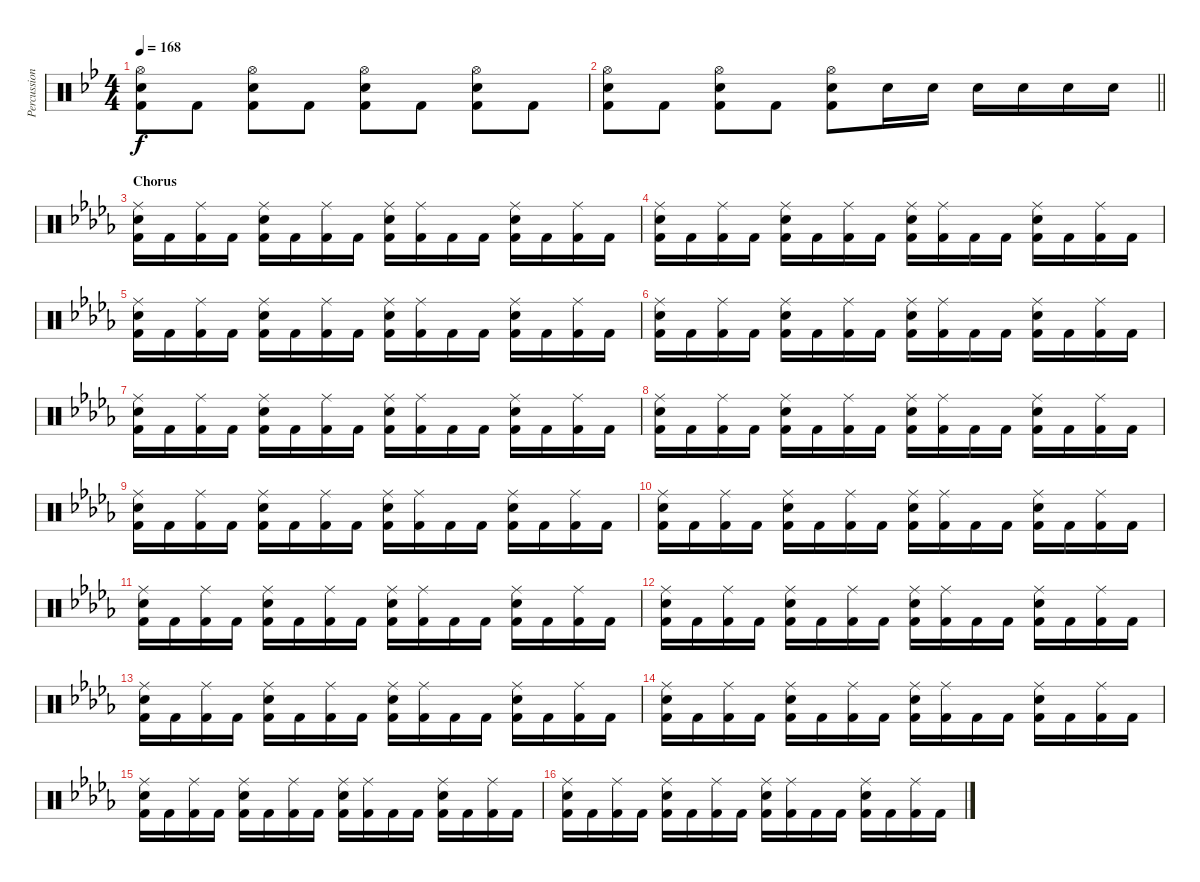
\track ("Percussion" "Percussion") {instrument percussion}
\staff {score}
\articulation defaults
\ts (4 4)
\tempo 168
\clef neutral
\ks bb
("Hi-Hat (open)" "Snare (hit) 2" "Kick (hit) 2").8{dy f} "Kick (hit) 2".8 ("Hi-Hat (open)" "Snare (hit) 2" "Kick (hit) 2").8 "Kick (hit) 2".8 ("Hi-Hat (open)" "Snare (hit) 2" "Kick (hit) 2").8 "Kick (hit) 2".8 ("Hi-Hat (open)" "Snare (hit) 2" "Kick (hit) 2").8 "Kick (hit) 2".8 |
\barLineRight lightlight
("Hi-Hat (open)" "Snare (hit) 2" "Kick (hit) 2").8 "Kick (hit) 2".8 ("Hi-Hat (open)" "Snare (hit) 2" "Kick (hit) 2").8 "Kick (hit) 2".8 ("Hi-Hat (open)" "Snare (hit) 2" "Kick (hit) 2").8 "Snare (hit) 2".16 "Snare (hit) 2".16 "Snare (hit) 2".16 "Snare (hit) 2".16 "Snare (hit) 2".16 "Snare (hit) 2".16 |
\section ("" "Chorus")
\ks db
("Ride (middle)" "Snare (hit) 2" "Kick (hit) 2").16 "Kick (hit) 2".16 ("Ride (middle)" "Kick (hit) 2").16 "Kick (hit) 2".16 ("Ride (middle)" "Snare (hit) 2" "Kick (hit) 2").16 "Kick (hit) 2".16 ("Ride (middle)" "Kick (hit) 2").16 "Kick (hit) 2".16 ("Ride (middle)" "Snare (hit) 2" "Kick (hit) 2").16 ("Ride (middle)" "Kick (hit) 2").16 "Kick (hit) 2".16 "Kick (hit) 2".16 ("Ride (middle)" "Snare (hit) 2" "Kick (hit) 2").16 "Kick (hit) 2".16 ("Ride (middle)" "Kick (hit) 2").16 "Kick (hit) 2".16 |
("Ride (middle)" "Snare (hit) 2" "Kick (hit) 2").16 "Kick (hit) 2".16 ("Ride (middle)" "Kick (hit) 2").16 "Kick (hit) 2".16 ("Ride (middle)" "Snare (hit) 2" "Kick (hit) 2").16 "Kick (hit) 2".16 ("Ride (middle)" "Kick (hit) 2").16 "Kick (hit) 2".16 ("Ride (middle)" "Snare (hit) 2" "Kick (hit) 2").16 ("Ride (middle)" "Kick (hit) 2").16 "Kick (hit) 2".16 "Kick (hit) 2".16 ("Ride (middle)" "Snare (hit) 2" "Kick (hit) 2").16 "Kick (hit) 2".16 ("Ride (middle)" "Kick (hit) 2").16 "Kick (hit) 2".16 |
("Ride (middle)" "Snare (hit) 2" "Kick (hit) 2").16 "Kick (hit) 2".16 ("Ride (middle)" "Kick (hit) 2").16 "Kick (hit) 2".16 ("Ride (middle)" "Snare (hit) 2" "Kick (hit) 2").16 "Kick (hit) 2".16 ("Ride (middle)" "Kick (hit) 2").16 "Kick (hit) 2".16 ("Ride (middle)" "Snare (hit) 2" "Kick (hit) 2").16 ("Ride (middle)" "Kick (hit) 2").16 "Kick (hit) 2".16 "Kick (hit) 2".16 ("Ride (middle)" "Snare (hit) 2" "Kick (hit) 2").16 "Kick (hit) 2".16 ("Ride (middle)" "Kick (hit) 2").16 "Kick (hit) 2".16 |
("Ride (middle)" "Snare (hit) 2" "Kick (hit) 2").16 "Kick (hit) 2".16 ("Ride (middle)" "Kick (hit) 2").16 "Kick (hit) 2".16 ("Ride (middle)" "Snare (hit) 2" "Kick (hit) 2").16 "Kick (hit) 2".16 ("Ride (middle)" "Kick (hit) 2").16 "Kick (hit) 2".16 ("Ride (middle)" "Snare (hit) 2" "Kick (hit) 2").16 ("Ride (middle)" "Kick (hit) 2").16 "Kick (hit) 2".16 "Kick (hit) 2".16 ("Ride (middle)" "Snare (hit) 2" "Kick (hit) 2").16 "Kick (hit) 2".16 ("Ride (middle)" "Kick (hit) 2").16 "Kick (hit) 2".16 |
("Ride (middle)" "Snare (hit) 2" "Kick (hit) 2").16 "Kick (hit) 2".16 ("Ride (middle)" "Kick (hit) 2").16 "Kick (hit) 2".16 ("Ride (middle)" "Snare (hit) 2" "Kick (hit) 2").16 "Kick (hit) 2".16 ("Ride (middle)" "Kick (hit) 2").16 "Kick (hit) 2".16 ("Ride (middle)" "Snare (hit) 2" "Kick (hit) 2").16 ("Ride (middle)" "Kick (hit) 2").16 "Kick (hit) 2".16 "Kick (hit) 2".16 ("Ride (middle)" "Snare (hit) 2" "Kick (hit) 2").16 "Kick (hit) 2".16 ("Ride (middle)" "Kick (hit) 2").16 "Kick (hit) 2".16 |
("Ride (middle)" "Snare (hit) 2" "Kick (hit) 2").16 "Kick (hit) 2".16 ("Ride (middle)" "Kick (hit) 2").16 "Kick (hit) 2".16 ("Ride (middle)" "Snare (hit) 2" "Kick (hit) 2").16 "Kick (hit) 2".16 ("Ride (middle)" "Kick (hit) 2").16 "Kick (hit) 2".16 ("Ride (middle)" "Snare (hit) 2" "Kick (hit) 2").16 ("Ride (middle)" "Kick (hit) 2").16 "Kick (hit) 2".16 "Kick (hit) 2".16 ("Ride (middle)" "Snare (hit) 2" "Kick (hit) 2").16 "Kick (hit) 2".16 ("Ride (middle)" "Kick (hit) 2").16 "Kick (hit) 2".16 |
("Ride (middle)" "Snare (hit) 2" "Kick (hit) 2").16 "Kick (hit) 2".16 ("Ride (middle)" "Kick (hit) 2").16 "Kick (hit) 2".16 ("Ride (middle)" "Snare (hit) 2" "Kick (hit) 2").16 "Kick (hit) 2".16 ("Ride (middle)" "Kick (hit) 2").16 "Kick (hit) 2".16 ("Ride (middle)" "Snare (hit) 2" "Kick (hit) 2").16 ("Ride (middle)" "Kick (hit) 2").16 "Kick (hit) 2".16 "Kick (hit) 2".16 ("Ride (middle)" "Snare (hit) 2" "Kick (hit) 2").16 "Kick (hit) 2".16 ("Ride (middle)" "Kick (hit) 2").16 "Kick (hit) 2".16 |
("Ride (middle)" "Snare (hit) 2" "Kick (hit) 2").16 "Kick (hit) 2".16 ("Ride (middle)" "Kick (hit) 2").16 "Kick (hit) 2".16 ("Ride (middle)" "Snare (hit) 2" "Kick (hit) 2").16 "Kick (hit) 2".16 ("Ride (middle)" "Kick (hit) 2").16 "Kick (hit) 2".16 ("Ride (middle)" "Snare (hit) 2" "Kick (hit) 2").16 ("Ride (middle)" "Kick (hit) 2").16 "Kick (hit) 2".16 "Kick (hit) 2".16 ("Ride (middle)" "Snare (hit) 2" "Kick (hit) 2").16 "Kick (hit) 2".16 ("Ride (middle)" "Kick (hit) 2").16 "Kick (hit) 2".16 |
("Ride (middle)" "Snare (hit) 2" "Kick (hit) 2").16 "Kick (hit) 2".16 ("Ride (middle)" "Kick (hit) 2").16 "Kick (hit) 2".16 ("Ride (middle)" "Snare (hit) 2" "Kick (hit) 2").16 "Kick (hit) 2".16 ("Ride (middle)" "Kick (hit) 2").16 "Kick (hit) 2".16 ("Ride (middle)" "Snare (hit) 2" "Kick (hit) 2").16 ("Ride (middle)" "Kick (hit) 2").16 "Kick (hit) 2".16 "Kick (hit) 2".16 ("Ride (middle)" "Snare (hit) 2" "Kick (hit) 2").16 "Kick (hit) 2".16 ("Ride (middle)" "Kick (hit) 2").16 "Kick (hit) 2".16 |
("Ride (middle)" "Snare (hit) 2" "Kick (hit) 2").16 "Kick (hit) 2".16 ("Ride (middle)" "Kick (hit) 2").16 "Kick (hit) 2".16 ("Ride (middle)" "Snare (hit) 2" "Kick (hit) 2").16 "Kick (hit) 2".16 ("Ride (middle)" "Kick (hit) 2").16 "Kick (hit) 2".16 ("Ride (middle)" "Snare (hit) 2" "Kick (hit) 2").16 ("Ride (middle)" "Kick (hit) 2").16 "Kick (hit) 2".16 "Kick (hit) 2".16 ("Ride (middle)" "Snare (hit) 2" "Kick (hit) 2").16 "Kick (hit) 2".16 ("Ride (middle)" "Kick (hit) 2").16 "Kick (hit) 2".16 |
("Ride (middle)" "Snare (hit) 2" "Kick (hit) 2").16 "Kick (hit) 2".16 ("Ride (middle)" "Kick (hit) 2").16 "Kick (hit) 2".16 ("Ride (middle)" "Snare (hit) 2" "Kick (hit) 2").16 "Kick (hit) 2".16 ("Ride (middle)" "Kick (hit) 2").16 "Kick (hit) 2".16 ("Ride (middle)" "Snare (hit) 2" "Kick (hit) 2").16 ("Ride (middle)" "Kick (hit) 2").16 "Kick (hit) 2".16 "Kick (hit) 2".16 ("Ride (middle)" "Snare (hit) 2" "Kick (hit) 2").16 "Kick (hit) 2".16 ("Ride (middle)" "Kick (hit) 2").16 "Kick (hit) 2".16 |
("Ride (middle)" "Snare (hit) 2" "Kick (hit) 2").16 "Kick (hit) 2".16 ("Ride (middle)" "Kick (hit) 2").16 "Kick (hit) 2".16 ("Ride (middle)" "Snare (hit) 2" "Kick (hit) 2").16 "Kick (hit) 2".16 ("Ride (middle)" "Kick (hit) 2").16 "Kick (hit) 2".16 ("Ride (middle)" "Snare (hit) 2" "Kick (hit) 2").16 ("Ride (middle)" "Kick (hit) 2").16 "Kick (hit) 2".16 "Kick (hit) 2".16 ("Ride (middle)" "Snare (hit) 2" "Kick (hit) 2").16 "Kick (hit) 2".16 ("Ride (middle)" "Kick (hit) 2").16 "Kick (hit) 2".16 |
("Ride (middle)" "Snare (hit) 2" "Kick (hit) 2").16 "Kick (hit) 2".16 ("Ride (middle)" "Kick (hit) 2").16 "Kick (hit) 2".16 ("Ride (middle)" "Snare (hit) 2" "Kick (hit) 2").16 "Kick (hit) 2".16 ("Ride (middle)" "Kick (hit) 2").16 "Kick (hit) 2".16 ("Ride (middle)" "Snare (hit) 2" "Kick (hit) 2").16 ("Ride (middle)" "Kick (hit) 2").16 "Kick (hit) 2".16 "Kick (hit) 2".16 ("Ride (middle)" "Snare (hit) 2" "Kick (hit) 2").16 "Kick (hit) 2".16 ("Ride (middle)" "Kick (hit) 2").16 "Kick (hit) 2".16 |
("Ride (middle)" "Snare (hit) 2" "Kick (hit) 2").16 "Kick (hit) 2".16 ("Ride (middle)" "Kick (hit) 2").16 "Kick (hit) 2".16 ("Ride (middle)" "Snare (hit) 2" "Kick (hit) 2").16 "Kick (hit) 2".16 ("Ride (middle)" "Kick (hit) 2").16 "Kick (hit) 2".16 ("Ride (middle)" "Snare (hit) 2" "Kick (hit) 2").16 ("Ride (middle)" "Kick (hit) 2").16 "Kick (hit) 2".16 "Kick (hit) 2".16 ("Ride (middle)" "Snare (hit) 2" "Kick (hit) 2").16 "Kick (hit) 2".16 ("Ride (middle)" "Kick (hit) 2").16 "Kick (hit) 2".16
